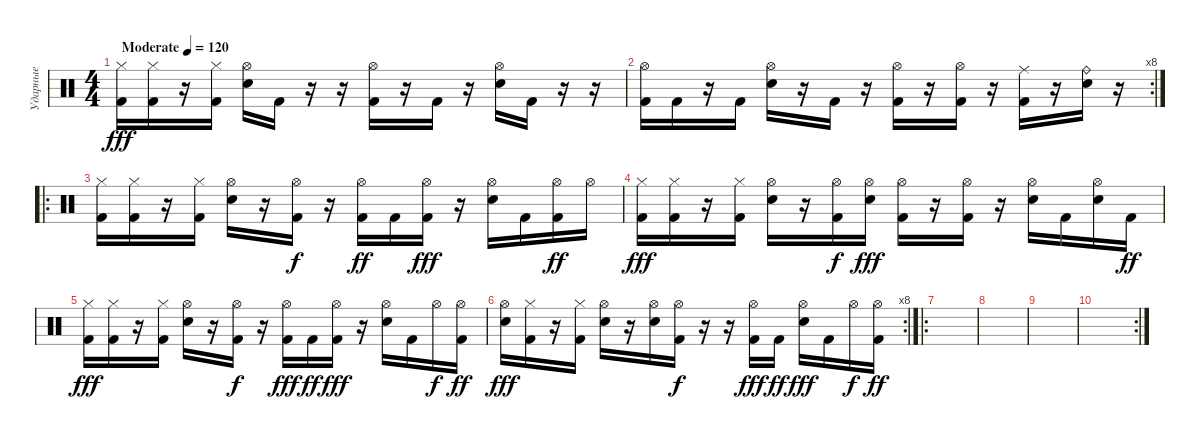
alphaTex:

\track ("Ударные" "Ударные") {instrument percussion}
\staff {score}
\articulation defaults
\ts (4 4)
\tempo (120 "Moderate")
\clef neutral
\ks c
("Hi-Hat (closed)" "Kick (hit) 2").16{dy fff} ("Hi-Hat (closed)" "Kick (hit) 2").16 r.16 ("Hi-Hat (closed)" "Kick (hit) 2").16 ("Hi-Hat (open)" "Electric Snare (hit)").16 "Kick (hit) 2".16 r.16 r.16 ("Hi-Hat (open)" "Kick (hit) 2").16 r.16 "Kick (hit) 2".16 r.16 ("Hi-Hat (open)" "Electric Snare (hit)").16 "Kick (hit) 2".16 r.16 r.16 |
\rc 8
("Hi-Hat (open)" "Kick (hit) 2").16 "Kick (hit) 2".16 r.16 "Kick (hit) 2".16 ("Hi-Hat (open)" "Electric Snare (hit)").16 r.16 "Kick (hit) 2".16 r.16 ("Hi-Hat (open)" "Kick (hit) 2").16 r.16 ("Hi-Hat (open)" "Kick (hit) 2").16 r.16 ("Ride (middle)" "Kick (hit) 2").16 r.16 ("Ride (bell)" "Electric Snare (hit)").16 r.16 |
\ro
("Hi-Hat (closed)" "Kick (hit) 2").16 ("Hi-Hat (closed)" "Kick (hit) 2").16 r.16 ("Hi-Hat (closed)" "Kick (hit) 2").16 ("Hi-Hat (open)" "Electric Snare (hit)").16 r.16 ("Hi-Hat (open)" "Kick (hit) 2").16{dy f} r.16 ("Hi-Hat (open)" "Kick (hit) 2").16{dy ff} "Kick (hit) 2".16 ("Hi-Hat (open)" "Kick (hit) 2").16{dy fff} r.16 ("Hi-Hat (open)" "Electric Snare (hit)").16 "Kick (hit) 2".16 ("Hi-Hat (open)" "Kick (hit) 2").16{dy ff} "Hi-Hat (open)".16 |
("Hi-Hat (closed)" "Kick (hit) 2").16{dy fff} ("Hi-Hat (closed)" "Kick (hit) 2").16 r.16 ("Hi-Hat (closed)" "Kick (hit) 2").16 ("Hi-Hat (open)" "Electric Snare (hit)").16 r.16 ("Hi-Hat (open)" "Kick (hit) 2").16{dy f} ("Hi-Hat (open)" "Electric Snare (hit)").16{dy fff} ("Hi-Hat (open)" "Kick (hit) 2").16 r.16 ("Hi-Hat (open)" "Kick (hit) 2").16 r.16 ("Hi-Hat (open)" "Electric Snare (hit)").16 "Kick (hit) 2".16 ("Hi-Hat (open)" "Electric Snare (hit)").16 "Kick (hit) 2".16{dy ff} |
("Hi-Hat (closed)" "Kick (hit) 2").16{dy fff} ("Hi-Hat (closed)" "Kick (hit) 2").16 r.16 ("Hi-Hat (closed)" "Kick (hit) 2").16 ("Hi-Hat (open)" "Electric Snare (hit)").16 r.16 ("Hi-Hat (open)" "Kick (hit) 2").16{dy f} r.16 ("Hi-Hat (open)" "Kick (hit) 2").16{dy fff} "Kick (hit) 2".16{dy ff} ("Hi-Hat (open)" "Kick (hit) 2").16{dy fff} r.16 ("Hi-Hat (open)" "Electric Snare (hit)").16 "Kick (hit) 2".16 "Hi-Hat (open)".16{dy f} ("Hi-Hat (open)" "Kick (hit) 2").16{dy ff} |
\rc 8
("Hi-Hat (open)" "Electric Snare (hit)").16{dy fff} ("Hi-Hat (closed)" "Kick (hit) 2").16 r.16 ("Hi-Hat (closed)" "Kick (hit) 2").16 ("Hi-Hat (open)" "Electric Snare (hit)").16 r.16 ("Hi-Hat (open)" "Electric Snare (hit)").16 ("Hi-Hat (open)" "Kick (hit) 2").16{dy f} r.16 r.16 ("Hi-Hat (open)" "Kick (hit) 2").16{dy fff} "Kick (hit) 2".16{dy ff} ("Hi-Hat (open)" "Electric Snare (hit)").16{dy fff} "Kick (hit) 2".16 "Hi-Hat (open)".16{dy f} ("Hi-Hat (open)" "Kick (hit) 2").16{dy ff} |
\ro
|
|
|
\rc 2
